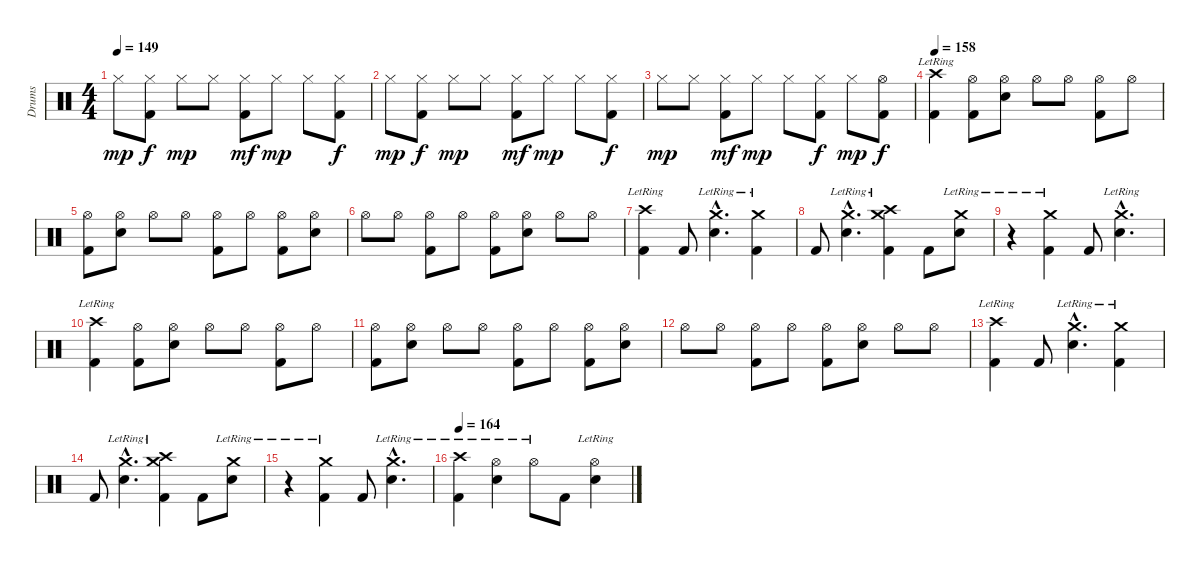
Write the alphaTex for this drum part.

\track ("Drums" "Drums") {instrument percussion}
\staff {score}
\articulation defaults
\ts (4 4)
\tempo 149
\clef neutral
\ks c "Hi-Hat (closed)".8{dy mp}
("Hi-Hat (closed)" "Kick (hit) 2").8{dy f} "Hi-Hat (closed)".8{dy mp} "Hi-Hat (closed)".8 ("Hi-Hat (closed)" "Kick (hit) 2").8{dy mf} "Hi-Hat (closed)".8{dy mp} "Hi-Hat (closed)".8 ("Hi-Hat (closed)" "Kick (hit) 2").8{dy f} |
"Hi-Hat (closed)".8{dy mp} ("Hi-Hat (closed)" "Kick (hit) 2").8{dy f} "Hi-Hat (closed)".8{dy mp} "Hi-Hat (closed)".8 ("Hi-Hat (closed)" "Kick (hit) 2").8{dy mf} "Hi-Hat (closed)".8{dy mp} "Hi-Hat (closed)".8 ("Hi-Hat (closed)" "Kick (hit) 2").8{dy f} |
"Hi-Hat (closed)".8{dy mp} "Hi-Hat (closed)".8 ("Hi-Hat (closed)" "Kick (hit) 2").8{dy mf} "Hi-Hat (closed)".8{dy mp} "Hi-Hat (closed)".8 ("Hi-Hat (closed)" "Kick (hit) 2").8{dy f} "Hi-Hat (closed)".8{dy mp} ("Hi-Hat (open)" "Kick (hit) 2").8{dy f} |
\tempo 158
("Crash high (hit)"{lr} "Kick (hit) 2").4 ("Hi-Hat (open)" "Kick (hit) 2").8 ("Hi-Hat (open)" "Snare (hit) 2").8 "Hi-Hat (open)".8 "Hi-Hat (open)".8 ("Hi-Hat (open)" "Kick (hit) 2").8 "Hi-Hat (open)".8 |
("Hi-Hat (open)" "Kick (hit) 2").8 ("Hi-Hat (open)" "Snare (hit) 2").8 "Hi-Hat (open)".8 "Hi-Hat (open)".8 ("Hi-Hat (open)" "Kick (hit) 2").8 "Hi-Hat (open)".8 ("Hi-Hat (open)" "Kick (hit) 2").8 ("Hi-Hat (open)" "Snare (hit) 2").8 |
"Hi-Hat (open)".8 "Hi-Hat (open)".8 ("Hi-Hat (open)" "Kick (hit) 2").8 "Hi-Hat (open)".8 ("Hi-Hat (open)" "Kick (hit) 2").8 ("Hi-Hat (open)" "Snare (hit) 2").8 "Hi-Hat (open)".8 "Hi-Hat (open)".8 |
("Crash high (hit)"{lr} "Kick (hit) 2").4 "Kick (hit) 2".8 ("Crash medium (hit)"{hac lr} "Snare (hit) 2"{hac}).4{d} ("Crash medium (hit)"{lr} "Kick (hit) 2").4 |
"Kick (hit) 2".8 ("Crash medium (hit)"{hac lr} "Snare (hit) 2"{hac}).4{d} ("Crash high (hit)"{lr} "Crash medium (hit)"{lr} "Kick (hit) 2").4 "Kick (hit) 2".8 ("Crash medium (hit)"{lr} "Snare (hit) 2").8 |
r.4 ("Crash medium (hit)"{lr} "Kick (hit) 2").4 "Kick (hit) 2".8 ("Crash medium (hit)"{hac lr} "Snare (hit) 2"{hac}).4{d} |
("Crash high (hit)"{lr} "Kick (hit) 2").4 ("Hi-Hat (open)" "Kick (hit) 2").8 ("Hi-Hat (open)" "Snare (hit) 2").8 "Hi-Hat (open)".8 "Hi-Hat (open)".8 ("Hi-Hat (open)" "Kick (hit) 2").8 "Hi-Hat (open)".8 |
("Hi-Hat (open)" "Kick (hit) 2").8 ("Hi-Hat (open)" "Snare (hit) 2").8 "Hi-Hat (open)".8 "Hi-Hat (open)".8 ("Hi-Hat (open)" "Kick (hit) 2").8 "Hi-Hat (open)".8 ("Hi-Hat (open)" "Kick (hit) 2").8 ("Hi-Hat (open)" "Snare (hit) 2").8 |
"Hi-Hat (open)".8 "Hi-Hat (open)".8 ("Hi-Hat (open)" "Kick (hit) 2").8 "Hi-Hat (open)".8 ("Hi-Hat (open)" "Kick (hit) 2").8 ("Hi-Hat (open)" "Snare (hit) 2").8 "Hi-Hat (open)".8 "Hi-Hat (open)".8 |
("Crash high (hit)"{lr} "Kick (hit) 2").4 "Kick (hit) 2".8 ("Crash medium (hit)"{hac lr} "Snare (hit) 2"{hac}).4{d} ("Crash medium (hit)"{lr} "Kick (hit) 2").4 |
"Kick (hit) 2".8 ("Crash medium (hit)"{hac lr} "Snare (hit) 2"{hac}).4{d} ("Crash high (hit)"{lr} "Crash medium (hit)"{lr} "Kick (hit) 2").4 "Kick (hit) 2".8 ("Crash medium (hit)"{lr} "Snare (hit) 2").8 |
r.4 ("Crash medium (hit)"{lr} "Kick (hit) 2").4 "Kick (hit) 2".8 ("Crash medium (hit)"{hac lr} "Snare (hit) 2"{hac}).4{d} |
\tempo 164
("Crash high (hit)"{lr} "Kick (hit) 2").4 ("Hi-Hat (open)"{lr} "Snare (hit) 2").4 "Hi-Hat (open)"{lr}.8 "Kick (hit) 2".8 ("Hi-Hat (open)"{lr} "Snare (hit) 2").4
